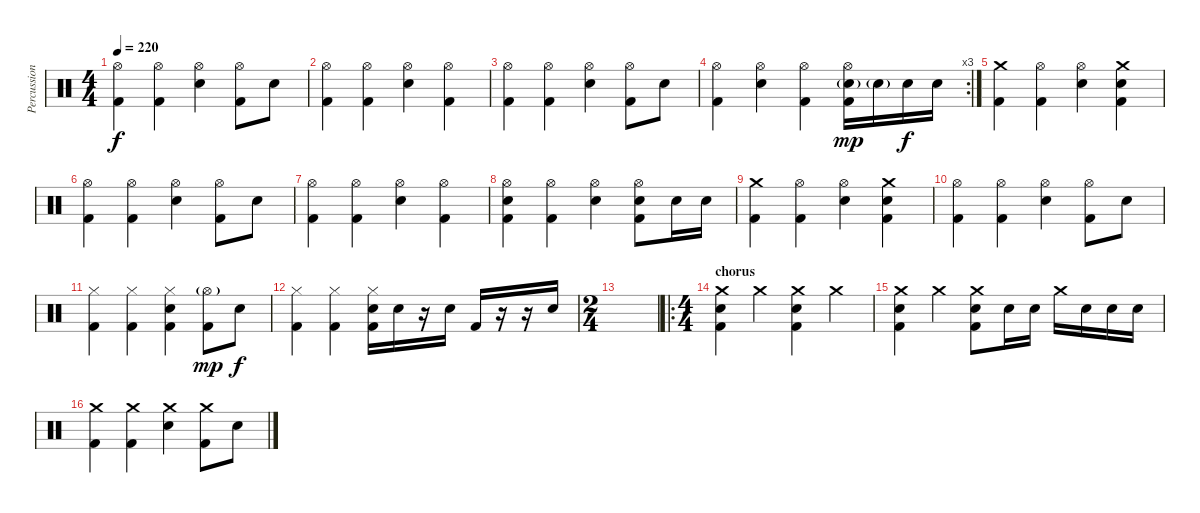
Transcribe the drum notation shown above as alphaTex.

\track ("Percussions" "Percussion") {instrument percussion}
\staff {score}
\articulation defaults
\ts (4 4)
\tempo 220
\clef neutral
\ks c
("Hi-Hat (open)" "Kick (hit) 2").4{dy f} ("Hi-Hat (open)" "Kick (hit) 2").4 ("Snare (hit) 2" "Hi-Hat (open)").4 ("Hi-Hat (open)" "Kick (hit) 2").8 "Snare (hit) 2".8 |
("Hi-Hat (open)" "Kick (hit) 2").4 ("Hi-Hat (open)" "Kick (hit) 2").4 ("Snare (hit) 2" "Hi-Hat (open)").4 ("Hi-Hat (open)" "Kick (hit) 2").4 |
("Hi-Hat (open)" "Kick (hit) 2").4 ("Hi-Hat (open)" "Kick (hit) 2").4 ("Snare (hit) 2" "Hi-Hat (open)").4 ("Hi-Hat (open)" "Kick (hit) 2").8 "Snare (hit) 2".8 |
\rc 3
("Hi-Hat (open)" "Kick (hit) 2").4 ("Snare (hit) 2" "Hi-Hat (open)").4 ("Hi-Hat (open)" "Kick (hit) 2").4 ("Snare (hit) 2"{g} "Hi-Hat (open)" "Kick (hit) 2").16{dy mp} "Snare (hit) 2"{g}.16 "Snare (hit) 2".16{dy f} "Snare (hit) 2".16 |
("Crash medium (hit)" "Kick (hit) 2").4 ("Hi-Hat (open)" "Kick (hit) 2").4 ("Snare (hit) 2" "Hi-Hat (open)").4 ("Snare (hit) 2" "Crash medium (hit)" "Kick (hit) 2").4 |
("Hi-Hat (open)" "Kick (hit) 2").4 ("Hi-Hat (open)" "Kick (hit) 2").4 ("Snare (hit) 2" "Hi-Hat (open)").4 ("Hi-Hat (open)" "Kick (hit) 2").8 "Snare (hit) 2".8 |
("Hi-Hat (open)" "Kick (hit) 2").4 ("Hi-Hat (open)" "Kick (hit) 2").4 ("Snare (hit) 2" "Hi-Hat (open)").4 ("Hi-Hat (open)" "Kick (hit) 2").4 |
("Snare (hit) 2" "Hi-Hat (open)" "Kick (hit) 2").4 ("Hi-Hat (open)" "Kick (hit) 2").4 ("Snare (hit) 2" "Hi-Hat (open)").4 ("Snare (hit) 2" "Hi-Hat (open)" "Kick (hit) 2").8 "Snare (hit) 2".16 "Snare (hit) 2".16 |
("Crash medium (hit)" "Kick (hit) 2").4 ("Hi-Hat (open)" "Kick (hit) 2").4 ("Snare (hit) 2" "Hi-Hat (open)").4 ("Snare (hit) 2" "Crash medium (hit)" "Kick (hit) 2").4 |
("Hi-Hat (open)" "Kick (hit) 2").4 ("Hi-Hat (open)" "Kick (hit) 2").4 ("Snare (hit) 2" "Hi-Hat (open)").4 ("Hi-Hat (open)" "Kick (hit) 2").8 "Snare (hit) 2".8 |
("Hi-Hat (closed)" "Kick (hit) 2").4 ("Hi-Hat (closed)" "Kick (hit) 2").4 ("Snare (hit) 2" "Hi-Hat (closed)" "Kick (hit) 2").4 ("Hi-Hat (open)"{g} "Kick (hit) 2").8{dy mp} "Snare (hit) 2".8{dy f} |
("Hi-Hat (closed)" "Kick (hit) 2").4 ("Hi-Hat (closed)" "Kick (hit) 2").4 ("Hi-Hat (closed)" "Snare (hit) 2" "Kick (hit) 2").16 "Snare (hit) 2".16 r.16 "Snare (hit) 2".16 "Kick (hit) 2".16 r.16 r.16 "Snare (hit) 2".16 |
\ts (2 4)
|
\ro
\ts (4 4)
\section ("" "chorus")
("Snare (hit) 2" "Crash medium (hit)" "Kick (hit) 2").4 "Crash medium (hit)".4 ("Snare (hit) 2" "Crash medium (hit)" "Kick (hit) 2").4 "Crash medium (hit)".4 |
("Snare (hit) 2" "Crash medium (hit)" "Kick (hit) 2").4 "Crash medium (hit)".4 ("Snare (hit) 2" "Crash medium (hit)" "Kick (hit) 2").8 "Snare (hit) 2".16 "Snare (hit) 2".16 "Crash medium (hit)".16 "Snare (hit) 2".16 "Snare (hit) 2".16 "Snare (hit) 2".16 |
("Crash medium (hit)" "Kick (hit) 2").4 ("Crash medium (hit)" "Kick (hit) 2").4 ("Snare (hit) 2" "Crash medium (hit)").4 ("Crash medium (hit)" "Kick (hit) 2").8 "Snare (hit) 2".8
